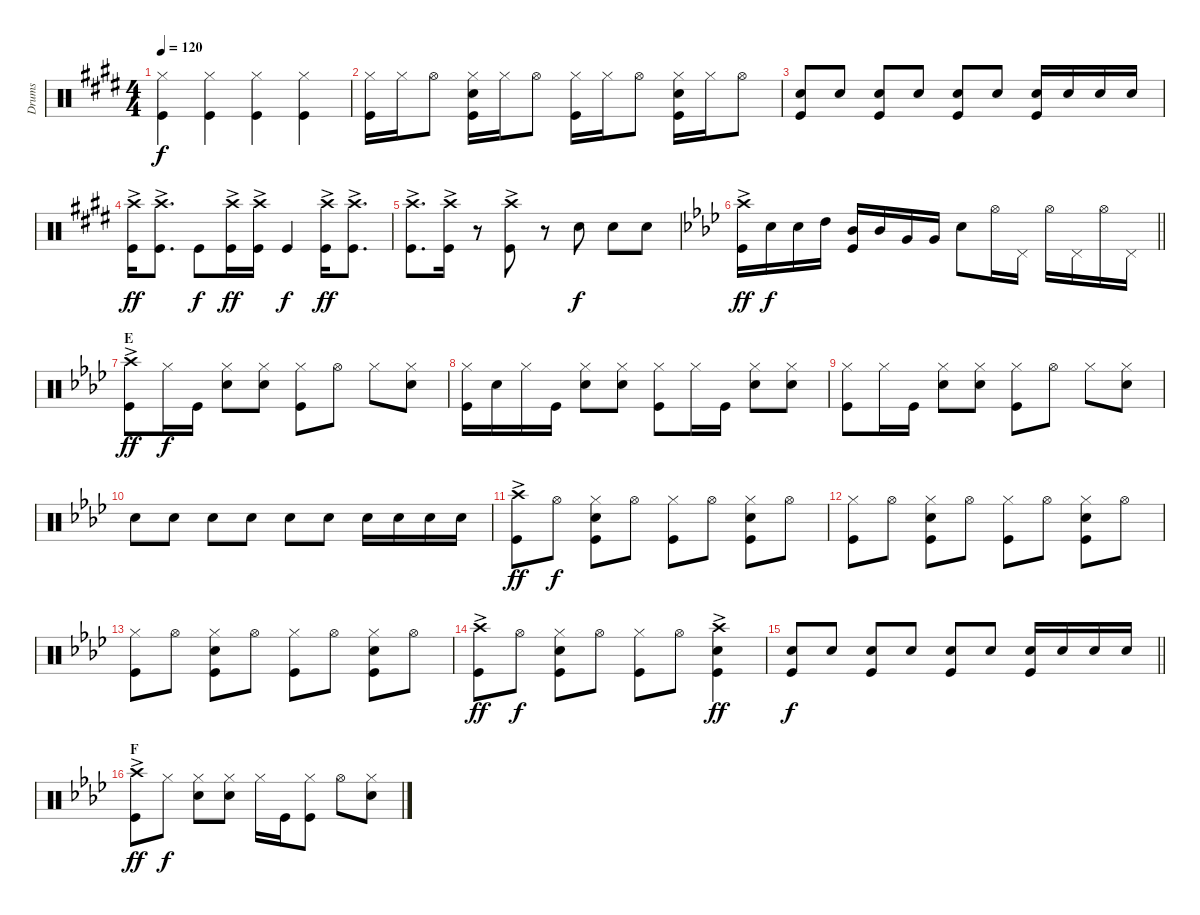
\track ("Drums" "Drums") {instrument percussion}
\staff {score}
\articulation defaults
\ts (4 4)
\tempo 120
\clef neutral
\ks e
("Hi-Hat (closed)" "Kick (hit)").4{dy f} ("Hi-Hat (closed)" "Kick (hit)").4 ("Hi-Hat (closed)" "Kick (hit)").4 ("Hi-Hat (closed)" "Kick (hit)").4 |
("Hi-Hat (closed)" "Kick (hit)").16 "Hi-Hat (closed)".16 "Hi-Hat (open)".8 ("Hi-Hat (closed)" "Kick (hit)" "Snare (hit) 2").16 "Hi-Hat (closed)".16 "Hi-Hat (open)".8 ("Hi-Hat (closed)" "Kick (hit)").16 "Hi-Hat (closed)".16 "Hi-Hat (open)".8 ("Hi-Hat (closed)" "Kick (hit)" "Snare (hit) 2").16 "Hi-Hat (closed)".16 "Hi-Hat (open)".8 |
("Kick (hit)" "Snare (hit) 2").8 "Snare (hit) 2".8 ("Snare (hit) 2" "Kick (hit)").8 "Snare (hit) 2".8 ("Kick (hit)" "Snare (hit) 2").8 "Snare (hit) 2".8 ("Snare (hit) 2" "Kick (hit)").16 "Snare (hit) 2".16 "Snare (hit) 2".16 "Snare (hit) 2".16 |
("Crash high (hit)"{ac} "Kick (hit)").16{dy ff} ("Crash high (hit)"{ac} "Kick (hit)").8{d} "Kick (hit)".8{dy f} ("Crash high (hit)"{ac} "Kick (hit)").16{dy ff} ("Crash high (hit)"{ac} "Kick (hit)").16 "Kick (hit)".4{dy f} ("Crash high (hit)"{ac} "Kick (hit)").16{dy ff} ("Crash high (hit)"{ac} "Kick (hit)").8{d} |
("Crash high (hit)"{ac} "Kick (hit)").8{d} ("Crash high (hit)"{ac} "Kick (hit)").16 r.8 ("Crash high (hit)"{ac} "Kick (hit)").8 r.8 "Snare (hit) 2".8{dy f} "Snare (hit) 2".8 "Snare (hit) 2".8 |
\barLineRight lightlight
\ks ab
("Crash high (hit)"{ac} "Kick (hit)").16{dy ff} "Snare (hit) 2".16{dy f} "Snare (hit) 2".16 "High Tom (hit)".16 ("Mid Tom (hit)" "Kick (hit)").16 "Mid Tom (hit)".16 "Very Low Tom (hit)".16 "Very Low Tom (hit)".16 "Snare (hit) 2".8 "Hi-Hat (open)".16 "Pedal Hi-Hat (hit)".16 "Hi-Hat (open)".16 "Pedal Hi-Hat (hit)".16 "Hi-Hat (open)".16 "Pedal Hi-Hat (hit)".16 |
\section ("" "E")
("Crash high (hit)"{ac} "Kick (hit)").8{dy ff} "Hi-Hat (closed)".16{dy f} "Kick (hit)".16 ("Hi-Hat (closed)" "Snare (hit) 2").8 ("Hi-Hat (closed)" "Snare (hit) 2").8 ("Hi-Hat (closed)" "Kick (hit)").8 "Hi-Hat (open)".8 "Hi-Hat (closed)".8 ("Hi-Hat (closed)" "Snare (hit) 2").8 |
("Hi-Hat (closed)" "Kick (hit)").16 "Snare (hit) 2".16 "Hi-Hat (closed)".16 "Kick (hit)".16 ("Hi-Hat (closed)" "Snare (hit) 2").8 ("Hi-Hat (closed)" "Snare (hit) 2").8 ("Hi-Hat (closed)" "Kick (hit)").8 "Hi-Hat (closed)".16 "Kick (hit)".16 ("Hi-Hat (closed)" "Snare (hit) 2").8 ("Hi-Hat (closed)" "Snare (hit) 2").8 |
("Hi-Hat (closed)" "Kick (hit)").8 "Hi-Hat (closed)".16 "Kick (hit)".16 ("Hi-Hat (closed)" "Snare (hit) 2").8 ("Hi-Hat (closed)" "Snare (hit) 2").8 ("Hi-Hat (closed)" "Kick (hit)").8 "Hi-Hat (open)".8 "Hi-Hat (closed)".8 ("Hi-Hat (closed)" "Snare (hit) 2").8 |
"Snare (hit) 2".8 "Snare (hit) 2".8 "Snare (hit) 2".8 "Snare (hit) 2".8 "Snare (hit) 2".8 "Snare (hit) 2".8 "Snare (hit) 2".16 "Snare (hit) 2".16 "Snare (hit) 2".16 "Snare (hit) 2".16 |
("Crash high (hit)"{ac} "Kick (hit)").8{dy ff} "Hi-Hat (open)".8{dy f} ("Hi-Hat (closed)" "Kick (hit)" "Snare (hit) 2").8 "Hi-Hat (open)".8 ("Hi-Hat (closed)" "Kick (hit)").8 "Hi-Hat (open)".8 ("Hi-Hat (closed)" "Kick (hit)" "Snare (hit) 2").8 "Hi-Hat (open)".8 |
("Hi-Hat (closed)" "Kick (hit)").8 "Hi-Hat (open)".8 ("Hi-Hat (closed)" "Kick (hit)" "Snare (hit) 2").8 "Hi-Hat (open)".8 ("Hi-Hat (closed)" "Kick (hit)").8 "Hi-Hat (open)".8 ("Hi-Hat (closed)" "Kick (hit)" "Snare (hit) 2").8 "Hi-Hat (open)".8 |
("Hi-Hat (closed)" "Kick (hit)").8 "Hi-Hat (open)".8 ("Hi-Hat (closed)" "Kick (hit)" "Snare (hit) 2").8 "Hi-Hat (open)".8 ("Hi-Hat (closed)" "Kick (hit)").8 "Hi-Hat (open)".8 ("Hi-Hat (closed)" "Kick (hit)" "Snare (hit) 2").8 "Hi-Hat (open)".8 |
("Crash high (hit)"{ac} "Kick (hit)").8{dy ff} "Hi-Hat (open)".8{dy f} ("Hi-Hat (closed)" "Kick (hit)" "Snare (hit) 2").8 "Hi-Hat (open)".8 ("Hi-Hat (closed)" "Kick (hit)").8 "Hi-Hat (open)".8 ("Crash high (hit)"{ac} "Snare (hit) 2" "Kick (hit)").4{dy ff} |
\barLineRight lightlight
("Snare (hit) 2" "Kick (hit)").8{dy f} "Snare (hit) 2".8 ("Snare (hit) 2" "Kick (hit)").8 "Snare (hit) 2".8 ("Snare (hit) 2" "Kick (hit)").8 "Snare (hit) 2".8 ("Snare (hit) 2" "Kick (hit)").16 "Snare (hit) 2".16 "Snare (hit) 2".16 "Snare (hit) 2".16 |
\section ("" "F")
("Crash high (hit)"{ac} "Kick (hit)").8{dy ff} "Hi-Hat (closed)".8{dy f} ("Hi-Hat (closed)" "Snare (hit) 2").8 ("Hi-Hat (closed)" "Snare (hit) 2").8 "Hi-Hat (closed)".16 "Kick (hit)".16 ("Hi-Hat (closed)" "Kick (hit)").8 "Hi-Hat (open)".8 ("Hi-Hat (closed)" "Snare (hit) 2").8
